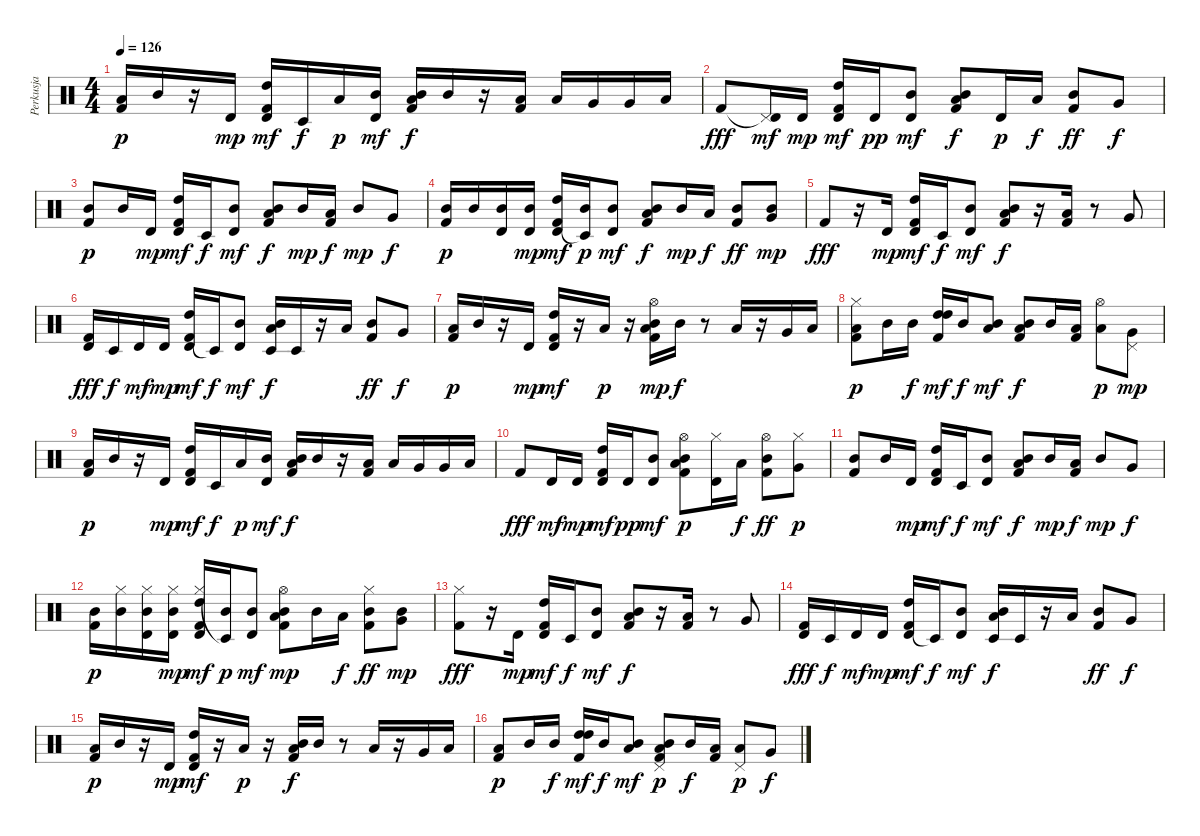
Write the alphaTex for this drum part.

\track ("Perkusja" "Perkusja") {instrument percussion}
\staff {score}
\articulation defaults
\ts (4 4)
\tempo 126
\clef neutral
\ks c
("Kick (hit) 2" "Low Tom (hit)").16{dy p} "Mid Tom (hit)".16 r.16 "Timbale high (hit)".16{dy mp} ("Kick (hit) 2" "Timbale high (hit)" "High Tom (hit)").16{dy mf} "Timbale low (hit)".16{dy f} "Low Tom (hit)".16{dy p} ("Timbale high (hit)" "Mid Tom (hit)").16{dy mf} ("Kick (hit) 2" "Low Tom (hit)" "Mid Tom (hit)").16{dy f} "Mid Tom (hit)".16 r.16 ("Kick (hit) 2" "Low Tom (hit)").16 "Low Tom (hit)".16 "Very Low Tom (hit)".16 "Very Low Tom (hit)".16 "Low Floor Tom (hit)".16 |
"Kick (hit) 2".8{dy fff} ("Pedal Hi-Hat (hit)"{t} "Timbale high (hit)").16{dy mf} "Timbale high (hit)".16{dy mp} ("Kick (hit) 2" "Timbale high (hit)" "High Tom (hit)").16{dy mf} "Timbale high (hit)".16{dy pp} ("Timbale high (hit)" "Mid Tom (hit)").8{dy mf} ("Kick (hit) 2" "Low Tom (hit)" "Mid Tom (hit)").8{dy f} "Timbale high (hit)".16{dy p} "Low Tom (hit)".16{dy f} ("Kick (hit) 2" "Mid Tom (hit)").8{dy ff} "Very Low Tom (hit)".8{dy f} |
("Kick (hit) 2" "Mid Tom (hit)").8{dy p} "Mid Tom (hit)".16 "Timbale high (hit)".16{dy mp} ("Kick (hit) 2" "Timbale high (hit)" "High Tom (hit)").16{dy mf} "Timbale low (hit)".16{dy f} ("Timbale high (hit)" "Mid Tom (hit)").8{dy mf} ("Kick (hit) 2" "Low Tom (hit)" "Mid Tom (hit)").8{dy f} "Mid Tom (hit)".16{dy mp} ("Kick (hit) 2" "Low Tom (hit)").16{dy f} "Mid Tom (hit)".8{dy mp} "Very Low Tom (hit)".8{dy f} |
("Kick (hit) 2" "Mid Tom (hit)").16{dy p} "Mid Tom (hit)".16 ("Timbale high (hit)" "Mid Tom (hit)").16 ("Timbale high (hit)" "Mid Tom (hit)").16{dy mp} ("Kick (hit) 2" "Timbale high (hit)" "High Tom (hit)").16{dy mf} ("Timbale low (hit)"{t} "Mid Tom (hit)").16{dy p} ("Timbale high (hit)" "Mid Tom (hit)").8{dy mf} ("Kick (hit) 2" "Low Tom (hit)" "Mid Tom (hit)").8{dy f} "Mid Tom (hit)".16{dy mp} "Low Tom (hit)".16{dy f} ("Kick (hit) 2" "Mid Tom (hit)").8{dy ff} ("Very Low Tom (hit)" "Mid Tom (hit)").8{dy mp} |
"Kick (hit) 2".8{dy fff} r.16 "Timbale high (hit)".16{dy mp} ("Kick (hit) 2" "Timbale high (hit)" "High Tom (hit)").16{dy mf} "Timbale low (hit)".16{dy f} ("Timbale high (hit)" "Mid Tom (hit)").8{dy mf} ("Kick (hit) 2" "Low Tom (hit)" "Mid Tom (hit)").8{dy f} r.16 ("Kick (hit) 2" "Low Tom (hit)").16 r.8 "Very Low Tom (hit)".8 |
("Kick (hit) 2" "Timbale high (hit)").16{dy fff} "Timbale low (hit)".16{dy f} "Timbale high (hit)".16{dy mf} "Timbale high (hit)".16{dy mp} ("Kick (hit) 2" "Timbale high (hit)" "High Tom (hit)").16{dy mf} "Timbale low (hit)"{t}.16{dy f} ("Timbale high (hit)" "Mid Tom (hit)").8{dy mf} ("Timbale low (hit)" "Low Tom (hit)" "Mid Tom (hit)").16{dy f} "Timbale low (hit)".16 r.16 "Low Tom (hit)".16 ("Kick (hit) 2" "Mid Tom (hit)").8{dy ff} "Very Low Tom (hit)".8{dy f} |
("Kick (hit) 2" "Low Tom (hit)").16{dy p} "Mid Tom (hit)".16 r.16 "Timbale high (hit)".16{dy mp} ("Kick (hit) 2" "Timbale high (hit)" "High Tom (hit)").16{dy mf} r.16 "Low Tom (hit)".16{dy p} r.16 ("Hi-Hat (open)" "Kick (hit) 2" "Low Tom (hit)" "Mid Tom (hit)").16{dy mp} "Mid Tom (hit)".16{dy f} r.8 "Low Tom (hit)".16 r.16 "Very Low Tom (hit)".16 "Low Floor Tom (hit)".16 |
("Hi-Hat (closed)" "Kick (hit) 2" "Low Tom (hit)").8{dy p} "Mid Tom (hit)".16 "Mid Tom (hit)".16{dy f} ("Kick (hit) 2" "High Tom (hit)" "High Tom (hit)").16{dy mf} "Mid Tom (hit)".16{dy f} ("Low Tom (hit)" "Mid Tom (hit)").8{dy mf} ("Kick (hit) 2" "Low Tom (hit)" "Mid Tom (hit)").8{dy f} "Mid Tom (hit)".16 ("Kick (hit) 2" "Low Tom (hit)").16 ("Hi-Hat (open)" "Low Tom (hit)").8{dy p} ("Pedal Hi-Hat (hit)" "Very Low Tom (hit)").8{dy mp} |
("Kick (hit) 2" "Low Tom (hit)").16{dy p} "Mid Tom (hit)".16 r.16 "Timbale high (hit)".16{dy mp} ("Kick (hit) 2" "Timbale high (hit)" "High Tom (hit)").16{dy mf} "Timbale low (hit)".16{dy f} "Low Tom (hit)".16{dy p} ("Timbale high (hit)" "Mid Tom (hit)").16{dy mf} ("Kick (hit) 2" "Low Tom (hit)" "Mid Tom (hit)").16{dy f} "Mid Tom (hit)".16 r.16 ("Kick (hit) 2" "Low Tom (hit)").16 "Low Tom (hit)".16 "Very Low Tom (hit)".16 "Very Low Tom (hit)".16 "Low Floor Tom (hit)".16 |
"Kick (hit) 2".8{dy fff} "Timbale high (hit)".16{dy mf} "Timbale high (hit)".16{dy mp} ("Kick (hit) 2" "Timbale high (hit)" "High Tom (hit)").16{dy mf} "Timbale high (hit)".16{dy pp} ("Timbale high (hit)" "Mid Tom (hit)").8{dy mf} ("Hi-Hat (open)" "Kick (hit) 2" "Low Tom (hit)" "Mid Tom (hit)").8{dy p} ("Hi-Hat (closed)" "Timbale high (hit)").16 "Low Tom (hit)".16{dy f} ("Hi-Hat (open)" "Kick (hit) 2" "Mid Tom (hit)").8{dy ff} ("Hi-Hat (closed)" "Very Low Tom (hit)").8{dy p} |
("Kick (hit) 2" "Mid Tom (hit)").8 "Mid Tom (hit)".16 "Timbale high (hit)".16{dy mp} ("Kick (hit) 2" "Timbale high (hit)" "High Tom (hit)").16{dy mf} "Timbale low (hit)".16{dy f} ("Timbale high (hit)" "Mid Tom (hit)").8{dy mf} ("Kick (hit) 2" "Low Tom (hit)" "Mid Tom (hit)").8{dy f} "Mid Tom (hit)".16{dy mp} ("Kick (hit) 2" "Low Tom (hit)").16{dy f} "Mid Tom (hit)".8{dy mp} "Very Low Tom (hit)".8{dy f} |
("Kick (hit) 2" "Mid Tom (hit)").16{dy p} ("Hi-Hat (closed)" "Mid Tom (hit)").16 ("Hi-Hat (closed)" "Timbale high (hit)" "Mid Tom (hit)").16 ("Hi-Hat (closed)" "Timbale high (hit)" "Mid Tom (hit)").16{dy mp} ("Hi-Hat (closed)" "Kick (hit) 2" "Timbale high (hit)" "High Tom (hit)").16{dy mf} ("Timbale low (hit)"{t} "Mid Tom (hit)").16{dy p} ("Timbale high (hit)" "Mid Tom (hit)").8{dy mf} ("Hi-Hat (open)" "Kick (hit) 2" "Low Tom (hit)" "Mid Tom (hit)").8{dy mp} "Mid Tom (hit)".16 "Low Tom (hit)".16{dy f} ("Hi-Hat (closed)" "Kick (hit) 2" "Mid Tom (hit)").8{dy ff} ("Very Low Tom (hit)" "Mid Tom (hit)").8{dy mp} |
("Hi-Hat (closed)" "Kick (hit) 2").8{dy fff} r.16 "Timbale high (hit)".16{dy mp} ("Kick (hit) 2" "Timbale high (hit)" "High Tom (hit)").16{dy mf} "Timbale low (hit)".16{dy f} ("Timbale high (hit)" "Mid Tom (hit)").8{dy mf} ("Kick (hit) 2" "Low Tom (hit)" "Mid Tom (hit)").8{dy f} r.16 ("Kick (hit) 2" "Low Tom (hit)").16 r.8 "Very Low Tom (hit)".8 |
("Kick (hit) 2" "Timbale high (hit)").16{dy fff} "Timbale low (hit)".16{dy f} "Timbale high (hit)".16{dy mf} "Timbale high (hit)".16{dy mp} ("Kick (hit) 2" "Timbale high (hit)" "High Tom (hit)").16{dy mf} "Timbale low (hit)"{t}.16{dy f} ("Timbale high (hit)" "Mid Tom (hit)").8{dy mf} ("Timbale low (hit)" "Low Tom (hit)" "Mid Tom (hit)").16{dy f} "Timbale low (hit)".16 r.16 "Low Tom (hit)".16 ("Kick (hit) 2" "Mid Tom (hit)").8{dy ff} "Very Low Tom (hit)".8{dy f} |
("Kick (hit) 2" "Low Tom (hit)").16{dy p} "Mid Tom (hit)".16 r.16 "Timbale high (hit)".16{dy mp} ("Kick (hit) 2" "Timbale high (hit)" "High Tom (hit)").16{dy mf} r.16 "Low Tom (hit)".16{dy p} r.16 ("Kick (hit) 2" "Low Tom (hit)" "Mid Tom (hit)").16{dy f} "Mid Tom (hit)".16 r.8 "Low Tom (hit)".16 r.16 "Very Low Tom (hit)".16 "Low Floor Tom (hit)".16 |
("Kick (hit) 2" "Low Tom (hit)").8{dy p} "Mid Tom (hit)".16 "Mid Tom (hit)".16{dy f} ("Kick (hit) 2" "High Tom (hit)" "High Tom (hit)").16{dy mf} "Mid Tom (hit)".16{dy f} ("Low Tom (hit)" "Mid Tom (hit)").8{dy mf} ("Pedal Hi-Hat (hit)" "Kick (hit) 2" "Low Tom (hit)" "Mid Tom (hit)").8{dy p} "Mid Tom (hit)".16{dy f} ("Kick (hit) 2" "Low Tom (hit)").16 ("Pedal Hi-Hat (hit)" "Low Tom (hit)").8{dy p} "Very Low Tom (hit)".8{dy f}
